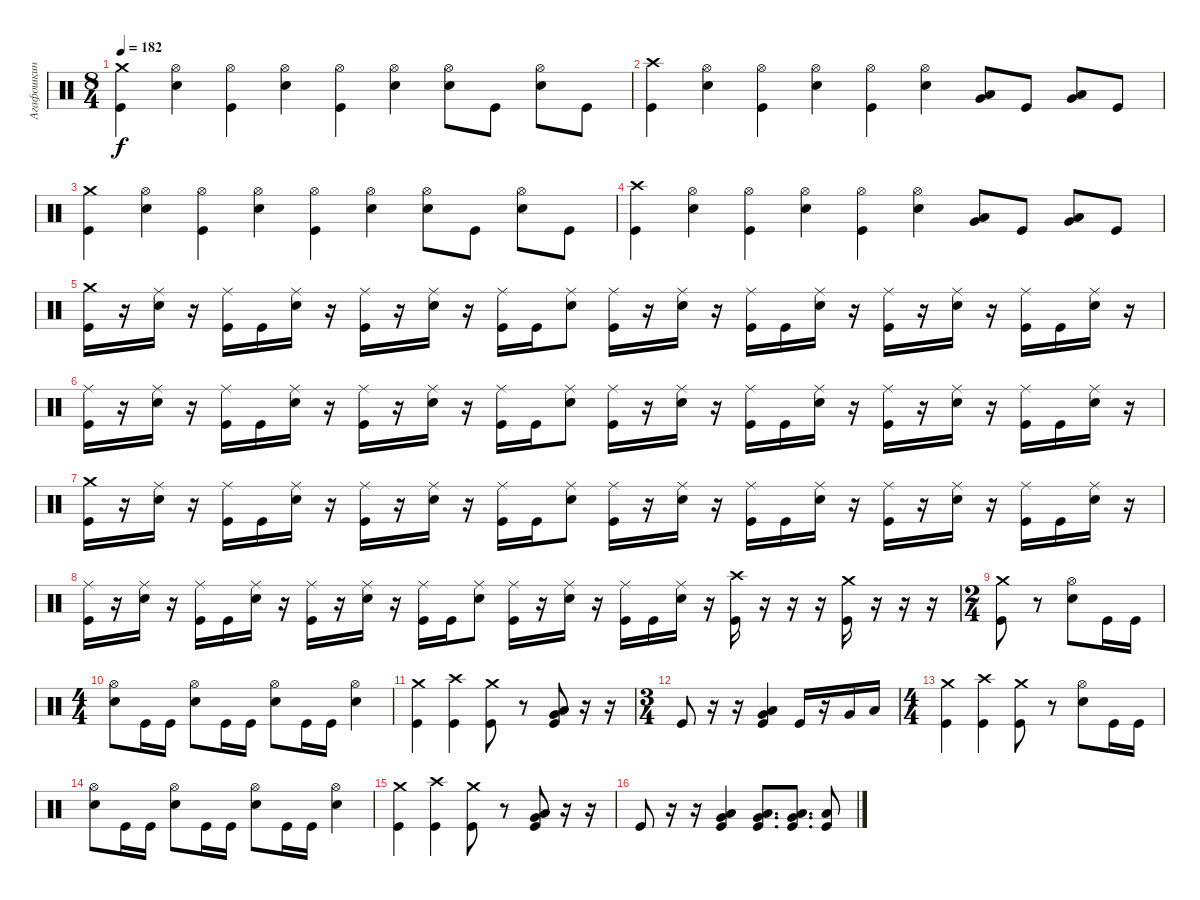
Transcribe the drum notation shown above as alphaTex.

\track ("Агафошкин" "Агафошкин") {instrument percussion}
\staff {score}
\articulation defaults
\ts (8 4)
\tempo 182
\clef neutral
\ks c
("Crash medium (hit)" "Kick (hit)").4{dy f} ("Hi-Hat (open)" "Snare (hit) 2").4 ("Hi-Hat (open)" "Kick (hit)").4 ("Hi-Hat (open)" "Snare (hit) 2").4 ("Hi-Hat (open)" "Kick (hit)").4 ("Hi-Hat (open)" "Snare (hit) 2").4 ("Hi-Hat (open)" "Snare (hit) 2").8 "Kick (hit)".8 ("Hi-Hat (open)" "Snare (hit) 2").8 "Kick (hit)".8 |
("Crash high (hit)" "Kick (hit)").4 ("Hi-Hat (open)" "Snare (hit) 2").4 ("Hi-Hat (open)" "Kick (hit)").4 ("Hi-Hat (open)" "Snare (hit) 2").4 ("Hi-Hat (open)" "Kick (hit)").4 ("Hi-Hat (open)" "Snare (hit) 2").4 ("Very Low Tom (hit)" "Low Tom (hit)").8 "Kick (hit)".8 ("Very Low Tom (hit)" "Low Tom (hit)").8 "Kick (hit)".8 |
("Crash medium (hit)" "Kick (hit)").4 ("Hi-Hat (open)" "Snare (hit) 2").4 ("Hi-Hat (open)" "Kick (hit)").4 ("Hi-Hat (open)" "Snare (hit) 2").4 ("Hi-Hat (open)" "Kick (hit)").4 ("Hi-Hat (open)" "Snare (hit) 2").4 ("Hi-Hat (open)" "Snare (hit) 2").8 "Kick (hit)".8 ("Hi-Hat (open)" "Snare (hit) 2").8 "Kick (hit)".8 |
("Crash high (hit)" "Kick (hit)").4 ("Hi-Hat (open)" "Snare (hit) 2").4 ("Hi-Hat (open)" "Kick (hit)").4 ("Hi-Hat (open)" "Snare (hit) 2").4 ("Hi-Hat (open)" "Kick (hit)").4 ("Hi-Hat (open)" "Snare (hit) 2").4 ("Very Low Tom (hit)" "Low Tom (hit)").8 "Kick (hit)".8 ("Very Low Tom (hit)" "Low Tom (hit)").8 "Kick (hit)".8 |
("Crash medium (hit)" "Kick (hit)").16 r.16 ("Ride (middle)" "Snare (hit) 2").16 r.16 ("Ride (middle)" "Kick (hit)").16 "Kick (hit)".16 ("Ride (middle)" "Snare (hit) 2").16 r.16 ("Ride (middle)" "Kick (hit)").16 r.16 ("Ride (middle)" "Snare (hit) 2").16 r.16 ("Ride (middle)" "Kick (hit)").16 "Kick (hit)".16 ("Ride (middle)" "Snare (hit) 2").8 ("Ride (middle)" "Kick (hit)").16 r.16 ("Ride (middle)" "Snare (hit) 2").16 r.16 ("Ride (middle)" "Kick (hit)").16 "Kick (hit)".16 ("Ride (middle)" "Snare (hit) 2").16 r.16 ("Ride (middle)" "Kick (hit)").16 r.16 ("Ride (middle)" "Snare (hit) 2").16 r.16 ("Ride (middle)" "Kick (hit)").16 "Kick (hit)".16 ("Ride (middle)" "Snare (hit) 2").16 r.16 |
("Ride (middle)" "Kick (hit)").16 r.16 ("Ride (middle)" "Snare (hit) 2").16 r.16 ("Ride (middle)" "Kick (hit)").16 "Kick (hit)".16 ("Ride (middle)" "Snare (hit) 2").16 r.16 ("Ride (middle)" "Kick (hit)").16 r.16 ("Ride (middle)" "Snare (hit) 2").16 r.16 ("Ride (middle)" "Kick (hit)").16 "Kick (hit)".16 ("Ride (middle)" "Snare (hit) 2").8 ("Ride (middle)" "Kick (hit)").16 r.16 ("Ride (middle)" "Snare (hit) 2").16 r.16 ("Ride (middle)" "Kick (hit)").16 "Kick (hit)".16 ("Ride (middle)" "Snare (hit) 2").16 r.16 ("Ride (middle)" "Kick (hit)").16 r.16 ("Ride (middle)" "Snare (hit) 2").16 r.16 ("Ride (middle)" "Kick (hit)").16 "Kick (hit)".16 ("Ride (middle)" "Snare (hit) 2").16 r.16 |
("Crash medium (hit)" "Kick (hit)").16 r.16 ("Ride (middle)" "Snare (hit) 2").16 r.16 ("Ride (middle)" "Kick (hit)").16 "Kick (hit)".16 ("Ride (middle)" "Snare (hit) 2").16 r.16 ("Ride (middle)" "Kick (hit)").16 r.16 ("Ride (middle)" "Snare (hit) 2").16 r.16 ("Ride (middle)" "Kick (hit)").16 "Kick (hit)".16 ("Ride (middle)" "Snare (hit) 2").8 ("Ride (middle)" "Kick (hit)").16 r.16 ("Ride (middle)" "Snare (hit) 2").16 r.16 ("Ride (middle)" "Kick (hit)").16 "Kick (hit)".16 ("Ride (middle)" "Snare (hit) 2").16 r.16 ("Ride (middle)" "Kick (hit)").16 r.16 ("Ride (middle)" "Snare (hit) 2").16 r.16 ("Ride (middle)" "Kick (hit)").16 "Kick (hit)".16 ("Ride (middle)" "Snare (hit) 2").16 r.16 |
("Ride (middle)" "Kick (hit)").16 r.16 ("Ride (middle)" "Snare (hit) 2").16 r.16 ("Ride (middle)" "Kick (hit)").16 "Kick (hit)".16 ("Ride (middle)" "Snare (hit) 2").16 r.16 ("Ride (middle)" "Kick (hit)").16 r.16 ("Ride (middle)" "Snare (hit) 2").16 r.16 ("Ride (middle)" "Kick (hit)").16 "Kick (hit)".16 ("Ride (middle)" "Snare (hit) 2").8 ("Ride (middle)" "Kick (hit)").16 r.16 ("Ride (middle)" "Snare (hit) 2").16 r.16 ("Ride (middle)" "Kick (hit)").16 "Kick (hit)".16 ("Ride (middle)" "Snare (hit) 2").16 r.16 ("Crash high (hit)" "Kick (hit)").16 r.16 r.16 r.16 ("Crash medium (hit)" "Kick (hit)").16 r.16 r.16 r.16 |
\ts (2 4)
("Crash medium (hit)" "Kick (hit)").8 r.8 ("Hi-Hat (open)" "Snare (hit) 2").8 "Kick (hit)".16 "Kick (hit)".16 |
\ts (4 4)
("Hi-Hat (open)" "Snare (hit) 2").8 "Kick (hit)".16 "Kick (hit)".16 ("Hi-Hat (open)" "Snare (hit) 2").8 "Kick (hit)".16 "Kick (hit)".16 ("Hi-Hat (open)" "Snare (hit) 2").8 "Kick (hit)".16 "Kick (hit)".16 ("Hi-Hat (open)" "Snare (hit) 2").4 |
("Crash medium (hit)" "Kick (hit)").4 ("Crash high (hit)" "Kick (hit)").4 ("Crash medium (hit)" "Kick (hit)").8 r.8 ("Kick (hit)" "Low Tom (hit)" "Very Low Tom (hit)").8 r.16 r.16 |
\ts (3 4)
"Kick (hit)".8 r.16 r.16 ("Kick (hit)" "Very Low Tom (hit)" "Low Tom (hit)").4 "Kick (hit)".16 r.16 "Very Low Tom (hit)".16 "Low Tom (hit)".16 |
\ts (4 4)
("Crash medium (hit)" "Kick (hit)").4 ("Crash high (hit)" "Kick (hit)").4 ("Crash medium (hit)" "Kick (hit)").8 r.8 ("Hi-Hat (open)" "Snare (hit) 2").8 "Kick (hit)".16 "Kick (hit)".16 |
("Hi-Hat (open)" "Snare (hit) 2").8 "Kick (hit)".16 "Kick (hit)".16 ("Hi-Hat (open)" "Snare (hit) 2").8 "Kick (hit)".16 "Kick (hit)".16 ("Hi-Hat (open)" "Snare (hit) 2").8 "Kick (hit)".16 "Kick (hit)".16 ("Hi-Hat (open)" "Snare (hit) 2").4 |
("Crash medium (hit)" "Kick (hit)").4 ("Crash high (hit)" "Kick (hit)").4 ("Crash medium (hit)" "Kick (hit)").8 r.8 ("Kick (hit)" "Low Tom (hit)" "Very Low Tom (hit)").8 r.16 r.16 |
"Kick (hit)".8 r.16 r.16 ("Kick (hit)" "Very Low Tom (hit)" "Low Tom (hit)").4 ("Very Low Tom (hit)" "Low Tom (hit)" "Kick (hit)").8{d} ("Very Low Tom (hit)" "Low Tom (hit)" "Kick (hit)").8{d} ("Low Tom (hit)" "Kick (hit)").8
